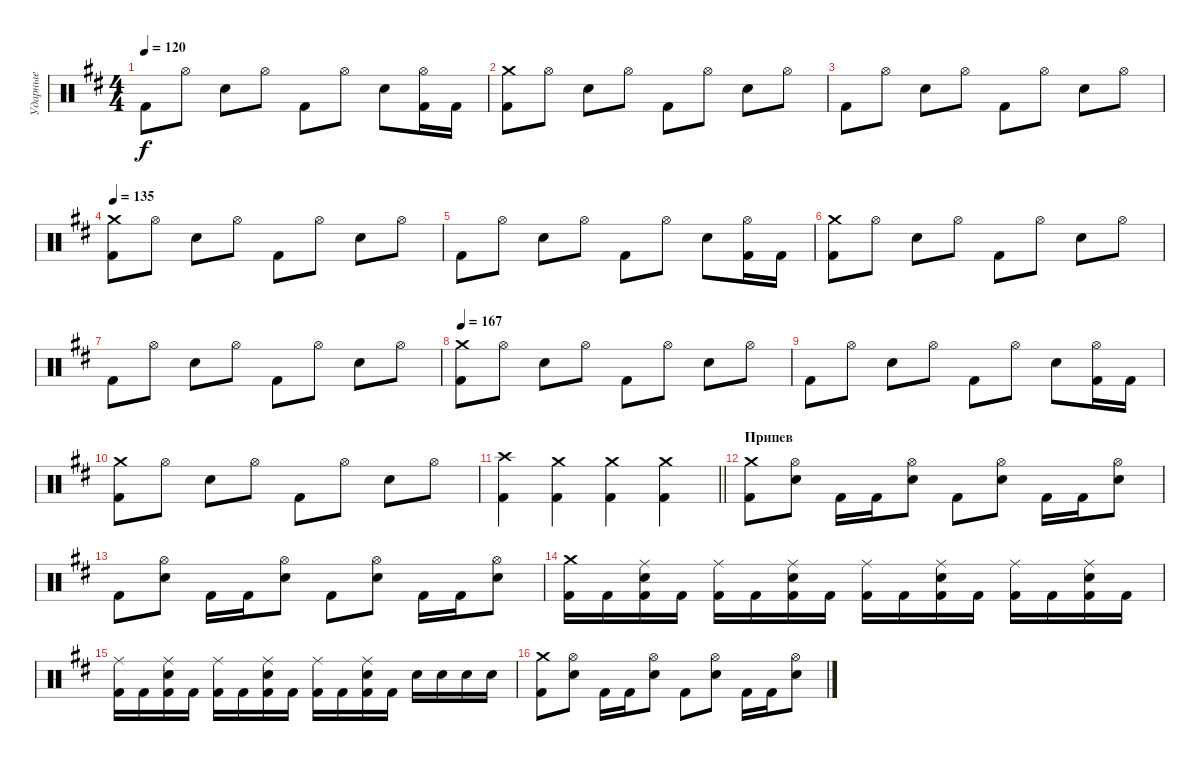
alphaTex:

\track ("Ударные" "Ударные") {instrument percussion}
\staff {score}
\articulation defaults
\ts (4 4)
\tempo 120
\clef neutral
\ks bminor "Kick (hit) 2".8{dy f} "Hi-Hat (open)".8 "Snare (hit) 2".8 "Hi-Hat (open)".8 "Kick (hit) 2".8 "Hi-Hat (open)".8 "Snare (hit) 2".8
("Kick (hit) 2" "Hi-Hat (open)").16 "Kick (hit) 2".16 |
("Kick (hit) 2" "Crash medium (hit)").8 "Hi-Hat (open)".8 "Snare (hit) 2".8 "Hi-Hat (open)".8 "Kick (hit) 2".8 "Hi-Hat (open)".8 "Snare (hit) 2".8 "Hi-Hat (open)".8 |
"Kick (hit) 2".8 "Hi-Hat (open)".8 "Snare (hit) 2".8 "Hi-Hat (open)".8 "Kick (hit) 2".8 "Hi-Hat (open)".8 "Snare (hit) 2".8 "Hi-Hat (open)".8 |
\tempo 135
("Kick (hit) 2" "Crash medium (hit)").8 "Hi-Hat (open)".8 "Snare (hit) 2".8 "Hi-Hat (open)".8 "Kick (hit) 2".8 "Hi-Hat (open)".8 "Snare (hit) 2".8 "Hi-Hat (open)".8 |
"Kick (hit) 2".8 "Hi-Hat (open)".8 "Snare (hit) 2".8 "Hi-Hat (open)".8 "Kick (hit) 2".8 "Hi-Hat (open)".8 "Snare (hit) 2".8 ("Kick (hit) 2" "Hi-Hat (open)").16 "Kick (hit) 2".16 |
("Kick (hit) 2" "Crash medium (hit)").8 "Hi-Hat (open)".8 "Snare (hit) 2".8 "Hi-Hat (open)".8 "Kick (hit) 2".8 "Hi-Hat (open)".8 "Snare (hit) 2".8 "Hi-Hat (open)".8 |
"Kick (hit) 2".8 "Hi-Hat (open)".8 "Snare (hit) 2".8 "Hi-Hat (open)".8 "Kick (hit) 2".8 "Hi-Hat (open)".8 "Snare (hit) 2".8 "Hi-Hat (open)".8 |
\tempo 167
("Kick (hit) 2" "Crash medium (hit)").8 "Hi-Hat (open)".8 "Snare (hit) 2".8 "Hi-Hat (open)".8 "Kick (hit) 2".8 "Hi-Hat (open)".8 "Snare (hit) 2".8 "Hi-Hat (open)".8 |
"Kick (hit) 2".8 "Hi-Hat (open)".8 "Snare (hit) 2".8 "Hi-Hat (open)".8 "Kick (hit) 2".8 "Hi-Hat (open)".8 "Snare (hit) 2".8 ("Kick (hit) 2" "Hi-Hat (open)").16 "Kick (hit) 2".16 |
("Kick (hit) 2" "Crash medium (hit)").8 "Hi-Hat (open)".8 "Snare (hit) 2".8 "Hi-Hat (open)".8 "Kick (hit) 2".8 "Hi-Hat (open)".8 "Snare (hit) 2".8 "Hi-Hat (open)".8 |
\barLineRight lightlight
("Crash high (hit)" "Kick (hit) 2").4 ("Crash medium (hit)" "Kick (hit) 2").4 ("Kick (hit) 2" "Crash medium (hit)").4 ("Kick (hit) 2" "Crash medium (hit)").4 |
\section ("" "Припев")
("Crash medium (hit)" "Kick (hit) 2").8 ("Hi-Hat (open)" "Snare (hit) 2").8 "Kick (hit) 2".16 "Kick (hit) 2".16 ("Hi-Hat (open)" "Snare (hit) 2").8 "Kick (hit) 2".8 ("Hi-Hat (open)" "Snare (hit) 2").8 "Kick (hit) 2".16 "Kick (hit) 2".16 ("Hi-Hat (open)" "Snare (hit) 2").8 |
"Kick (hit) 2".8 ("Hi-Hat (open)" "Snare (hit) 2").8 "Kick (hit) 2".16 "Kick (hit) 2".16 ("Hi-Hat (open)" "Snare (hit) 2").8 "Kick (hit) 2".8 ("Hi-Hat (open)" "Snare (hit) 2").8 "Kick (hit) 2".16 "Kick (hit) 2".16 ("Hi-Hat (open)" "Snare (hit) 2").8 |
("Kick (hit) 2" "Crash medium (hit)").16 "Kick (hit) 2".16 ("Snare (hit) 2" "Kick (hit) 2" "Ride (middle)").16 "Kick (hit) 2".16 ("Kick (hit) 2" "Ride (middle)").16 "Kick (hit) 2".16 ("Snare (hit) 2" "Kick (hit) 2" "Ride (middle)").16 "Kick (hit) 2".16 ("Kick (hit) 2" "Ride (middle)").16 "Kick (hit) 2".16 ("Snare (hit) 2" "Kick (hit) 2" "Ride (middle)").16 "Kick (hit) 2".16 ("Kick (hit) 2" "Ride (middle)").16 "Kick (hit) 2".16 ("Snare (hit) 2" "Kick (hit) 2" "Ride (middle)").16 "Kick (hit) 2".16 |
("Kick (hit) 2" "Ride (middle)").16 "Kick (hit) 2".16 ("Snare (hit) 2" "Kick (hit) 2" "Ride (middle)").16 "Kick (hit) 2".16 ("Kick (hit) 2" "Ride (middle)").16 "Kick (hit) 2".16 ("Snare (hit) 2" "Kick (hit) 2" "Ride (middle)").16 "Kick (hit) 2".16 ("Kick (hit) 2" "Ride (middle)").16 "Kick (hit) 2".16 ("Snare (hit) 2" "Kick (hit) 2" "Ride (middle)").16 "Kick (hit) 2".16 "Snare (hit) 2".16 "Snare (hit) 2".16 "Snare (hit) 2".16 "Snare (hit) 2".16 |
("Crash medium (hit)" "Kick (hit) 2").8 ("Hi-Hat (open)" "Snare (hit) 2").8 "Kick (hit) 2".16 "Kick (hit) 2".16 ("Hi-Hat (open)" "Snare (hit) 2").8 "Kick (hit) 2".8 ("Hi-Hat (open)" "Snare (hit) 2").8 "Kick (hit) 2".16 "Kick (hit) 2".16 ("Hi-Hat (open)" "Snare (hit) 2").8
